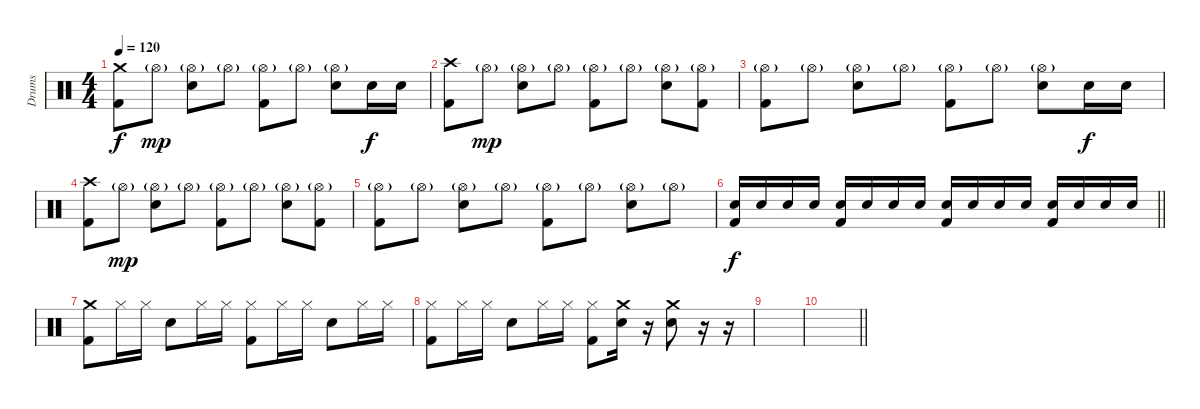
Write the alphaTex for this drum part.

\track ("Drums" "Drums") {instrument percussion}
\staff {score}
\articulation defaults
\ts (4 4)
\tempo 120
\clef neutral
\ks c
("Crash medium (hit)" "Kick (hit) 2").8{dy f} "Hi-Hat (open)"{g}.8{dy mp} ("Hi-Hat (open)"{g} "Electric Snare (hit)").8 "Hi-Hat (open)"{g}.8 ("Hi-Hat (open)"{g} "Kick (hit) 2").8 "Hi-Hat (open)"{g}.8 ("Hi-Hat (open)"{g} "Electric Snare (hit)").8 "Electric Snare (hit)".16{dy f} "Electric Snare (hit)".16 |
("Crash high (hit)" "Kick (hit) 2").8 "Hi-Hat (open)"{g}.8{dy mp} ("Hi-Hat (open)"{g} "Electric Snare (hit)").8 "Hi-Hat (open)"{g}.8 ("Hi-Hat (open)"{g} "Kick (hit) 2").8 "Hi-Hat (open)"{g}.8 ("Hi-Hat (open)"{g} "Electric Snare (hit)").8 ("Hi-Hat (open)"{g} "Kick (hit) 2").8 |
("Hi-Hat (open)"{g} "Kick (hit) 2").8 "Hi-Hat (open)"{g}.8 ("Hi-Hat (open)"{g} "Electric Snare (hit)").8 "Hi-Hat (open)"{g}.8 ("Hi-Hat (open)"{g} "Kick (hit) 2").8 "Hi-Hat (open)"{g}.8 ("Hi-Hat (open)"{g} "Electric Snare (hit)").8 "Electric Snare (hit)".16{dy f} "Electric Snare (hit)".16 |
("Crash high (hit)" "Kick (hit) 2").8 "Hi-Hat (open)"{g}.8{dy mp} ("Hi-Hat (open)"{g} "Electric Snare (hit)").8 "Hi-Hat (open)"{g}.8 ("Hi-Hat (open)"{g} "Kick (hit) 2").8 "Hi-Hat (open)"{g}.8 ("Hi-Hat (open)"{g} "Electric Snare (hit)").8 ("Hi-Hat (open)"{g} "Kick (hit) 2").8 |
("Hi-Hat (open)"{g} "Kick (hit) 2").8 "Hi-Hat (open)"{g}.8 ("Hi-Hat (open)"{g} "Electric Snare (hit)").8 "Hi-Hat (open)"{g}.8 ("Hi-Hat (open)"{g} "Kick (hit) 2").8 "Hi-Hat (open)"{g}.8 ("Hi-Hat (open)"{g} "Electric Snare (hit)").8 "Hi-Hat (open)"{g}.8 |
\barLineRight lightlight
("Electric Snare (hit)" "Kick (hit) 2").16{dy f} "Electric Snare (hit)".16 "Electric Snare (hit)".16 "Electric Snare (hit)".16 ("Electric Snare (hit)" "Kick (hit) 2").16 "Electric Snare (hit)".16 "Electric Snare (hit)".16 "Electric Snare (hit)".16 ("Electric Snare (hit)" "Kick (hit) 2").16 "Electric Snare (hit)".16 "Electric Snare (hit)".16 "Electric Snare (hit)".16 ("Electric Snare (hit)" "Kick (hit) 2").16 "Electric Snare (hit)".16 "Electric Snare (hit)".16 "Electric Snare (hit)".16 |
\section ("" "")
("Crash medium (hit)" "Kick (hit) 2").8 "Hi-Hat (closed)".16 "Hi-Hat (closed)".16 "Electric Snare (hit)".8 "Hi-Hat (closed)".16 "Hi-Hat (closed)".16 ("Hi-Hat (closed)" "Kick (hit) 2").8 "Hi-Hat (closed)".16 "Hi-Hat (closed)".16 "Electric Snare (hit)".8 "Hi-Hat (closed)".16 "Hi-Hat (closed)".16 |
("Hi-Hat (closed)" "Kick (hit) 2").8 "Hi-Hat (closed)".16 "Hi-Hat (closed)".16 "Electric Snare (hit)".8 "Hi-Hat (closed)".16 "Hi-Hat (closed)".16 ("Hi-Hat (closed)" "Kick (hit) 2").8 ("Crash medium (hit)" "Electric Snare (hit)").16 r.16 ("Crash medium (hit)" "Electric Snare (hit)").8 r.16 r.16 |
|
\barLineRight lightlight
